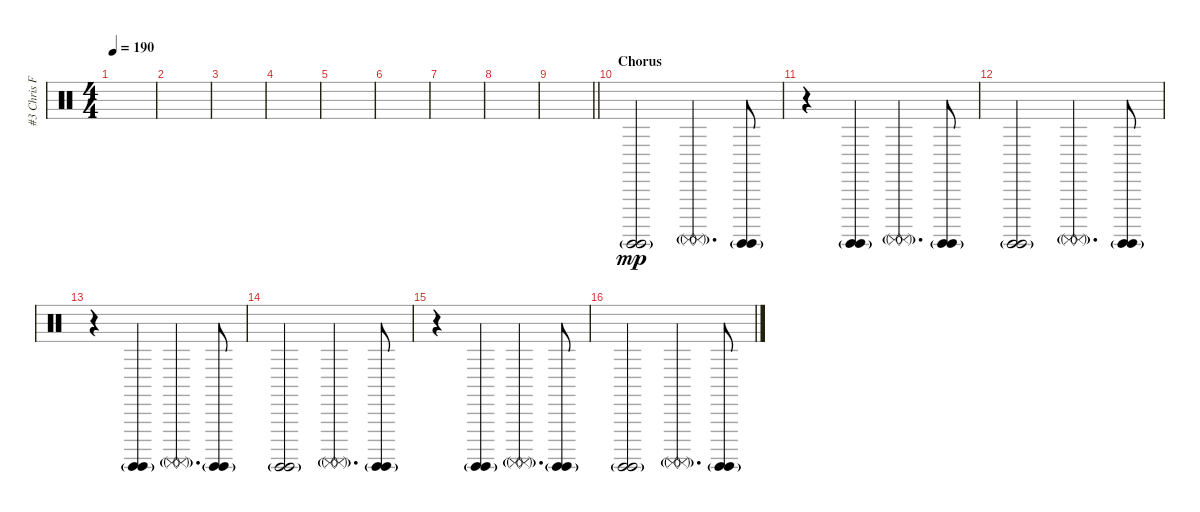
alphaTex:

\track ("#3 Chris Fehn" "#3 Chris F") {instrument percussion}
\staff {score}
\articulation defaults
\ts (4 4)
\tempo 190
\clef neutral
\ks c
|
|
|
|
|
|
|
|
\barLineRight lightlight
|
\section ("" "Chorus")
("Surdo (hit)"{g} "Surdo (hit)"{g}).2{dy mp} ("Surdo (mute)"{g} "Surdo (mute)"{g}).4{d} ("Surdo (hit)"{g} "Surdo (hit)"{g}).8 |
r.4 ("Surdo (hit)"{g} "Surdo (hit)"{g}).4 ("Surdo (mute)"{g} "Surdo (mute)"{g}).4{d} ("Surdo (hit)"{g} "Surdo (hit)"{g}).8 |
("Surdo (hit)"{g} "Surdo (hit)"{g}).2 ("Surdo (mute)"{g} "Surdo (mute)"{g}).4{d} ("Surdo (hit)"{g} "Surdo (hit)"{g}).8 |
r.4 ("Surdo (hit)"{g} "Surdo (hit)"{g}).4 ("Surdo (mute)"{g} "Surdo (mute)"{g}).4{d} ("Surdo (hit)"{g} "Surdo (hit)"{g}).8 |
("Surdo (hit)"{g} "Surdo (hit)"{g}).2 ("Surdo (mute)"{g} "Surdo (mute)"{g}).4{d} ("Surdo (hit)"{g} "Surdo (hit)"{g}).8 |
r.4 ("Surdo (hit)"{g} "Surdo (hit)"{g}).4 ("Surdo (mute)"{g} "Surdo (mute)"{g}).4{d} ("Surdo (hit)"{g} "Surdo (hit)"{g}).8 |
("Surdo (hit)"{g} "Surdo (hit)"{g}).2 ("Surdo (mute)"{g} "Surdo (mute)"{g}).4{d} ("Surdo (hit)"{g} "Surdo (hit)"{g}).8
